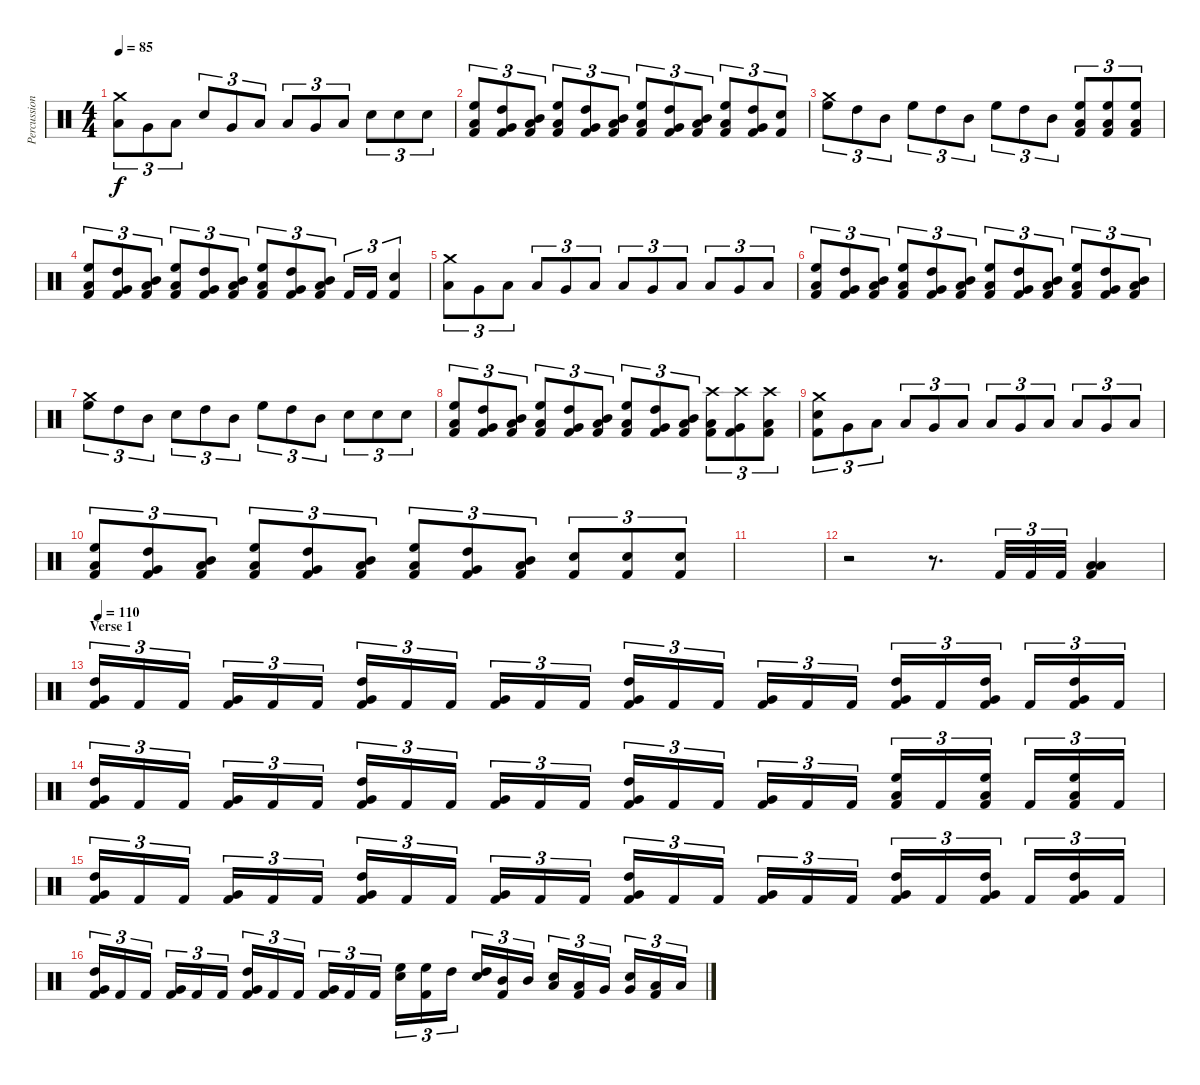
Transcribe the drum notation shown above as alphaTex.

\track ("Percussion" "Percussion") {instrument percussion}
\staff {score}
\articulation defaults
\ts (4 4)
\tempo 85
\clef neutral
\ks c
("Crash medium (hit)" "Low Tom (hit)").8{tu (3 2) dy f} "Very Low Tom (hit)".8{tu (3 2)} "Low Floor Tom (hit)".8{tu (3 2)} "Electric Snare (hit)".8{tu (3 2)} "Very Low Tom (hit)".8{tu (3 2)} "Low Floor Tom (hit)".8{tu (3 2)} "Low Tom (hit)".8{tu (3 2)} "Very Low Tom (hit)".8{tu (3 2)} "Low Floor Tom (hit)".8{tu (3 2)} "Electric Snare (hit)".8{tu (3 2)} "Electric Snare (hit)".8{tu (3 2)} "Electric Snare (hit)".8{tu (3 2)} |
("High Floor Tom (hit)" "Low Tom (hit)" "Kick (hit) 2").8{tu (3 2)} ("High Tom (hit)" "Very Low Tom (hit)" "Kick (hit) 2").8{tu (3 2)} ("Mid Tom (hit)" "Low Floor Tom (hit)" "Kick (hit) 2").8{tu (3 2)} ("High Floor Tom (hit)" "Low Tom (hit)" "Kick (hit) 2").8{tu (3 2)} ("High Tom (hit)" "Very Low Tom (hit)" "Kick (hit) 2").8{tu (3 2)} ("Mid Tom (hit)" "Low Floor Tom (hit)" "Kick (hit) 2").8{tu (3 2)} ("High Floor Tom (hit)" "Low Tom (hit)" "Kick (hit) 2").8{tu (3 2)} ("High Tom (hit)" "Very Low Tom (hit)" "Kick (hit) 2").8{tu (3 2)} ("Mid Tom (hit)" "Low Floor Tom (hit)" "Kick (hit) 2").8{tu (3 2)} ("High Floor Tom (hit)" "Low Tom (hit)" "Kick (hit) 2").8{tu (3 2)} ("High Tom (hit)" "Very Low Tom (hit)" "Kick (hit) 2").8{tu (3 2)} ("Electric Snare (hit)" "Kick (hit) 2").8{tu (3 2)} |
("Crash medium (hit)" "High Floor Tom (hit)").8{tu (3 2)} "High Tom (hit)".8{tu (3 2)} "Mid Tom (hit)".8{tu (3 2)} "High Floor Tom (hit)".8{tu (3 2)} "High Tom (hit)".8{tu (3 2)} "Mid Tom (hit)".8{tu (3 2)} "High Floor Tom (hit)".8{tu (3 2)} "High Tom (hit)".8{tu (3 2)} "Mid Tom (hit)".8{tu (3 2)} ("High Floor Tom (hit)" "Low Tom (hit)" "Kick (hit) 2").8{tu (3 2)} ("High Floor Tom (hit)" "Low Tom (hit)" "Kick (hit) 2").8{tu (3 2)} ("High Floor Tom (hit)" "Low Tom (hit)" "Kick (hit) 2").8{tu (3 2)} |
("High Floor Tom (hit)" "Low Tom (hit)" "Kick (hit) 2").8{tu (3 2)} ("High Tom (hit)" "Very Low Tom (hit)" "Kick (hit) 2").8{tu (3 2)} ("Mid Tom (hit)" "Low Floor Tom (hit)" "Kick (hit) 2").8{tu (3 2)} ("High Floor Tom (hit)" "Low Tom (hit)" "Kick (hit) 2").8{tu (3 2)} ("High Tom (hit)" "Very Low Tom (hit)" "Kick (hit) 2").8{tu (3 2)} ("Mid Tom (hit)" "Low Floor Tom (hit)" "Kick (hit) 2").8{tu (3 2)} ("High Floor Tom (hit)" "Low Tom (hit)" "Kick (hit) 2").8{tu (3 2)} ("High Tom (hit)" "Very Low Tom (hit)" "Kick (hit) 2").8{tu (3 2)} ("Mid Tom (hit)" "Low Floor Tom (hit)" "Kick (hit) 2").8{tu (3 2)} "Kick (hit) 2".16{tu (3 2)} "Kick (hit) 2".16{tu (3 2)} ("Electric Snare (hit)" "Kick (hit) 2").4{tu (3 2)} |
("Crash medium (hit)" "Low Tom (hit)").8{tu (3 2)} "Very Low Tom (hit)".8{tu (3 2)} "Low Floor Tom (hit)".8{tu (3 2)} "Low Tom (hit)".8{tu (3 2)} "Very Low Tom (hit)".8{tu (3 2)} "Low Floor Tom (hit)".8{tu (3 2)} "Low Tom (hit)".8{tu (3 2)} "Very Low Tom (hit)".8{tu (3 2)} "Low Floor Tom (hit)".8{tu (3 2)} "Low Tom (hit)".8{tu (3 2)} "Very Low Tom (hit)".8{tu (3 2)} "Low Floor Tom (hit)".8{tu (3 2)} |
("High Floor Tom (hit)" "Low Tom (hit)" "Kick (hit) 2").8{tu (3 2)} ("High Tom (hit)" "Very Low Tom (hit)" "Kick (hit) 2").8{tu (3 2)} ("Mid Tom (hit)" "Low Floor Tom (hit)" "Kick (hit) 2").8{tu (3 2)} ("High Floor Tom (hit)" "Low Tom (hit)" "Kick (hit) 2").8{tu (3 2)} ("High Tom (hit)" "Very Low Tom (hit)" "Kick (hit) 2").8{tu (3 2)} ("Mid Tom (hit)" "Low Floor Tom (hit)" "Kick (hit) 2").8{tu (3 2)} ("High Floor Tom (hit)" "Low Tom (hit)" "Kick (hit) 2").8{tu (3 2)} ("High Tom (hit)" "Very Low Tom (hit)" "Kick (hit) 2").8{tu (3 2)} ("Mid Tom (hit)" "Low Floor Tom (hit)" "Kick (hit) 2").8{tu (3 2)} ("High Floor Tom (hit)" "Low Tom (hit)" "Kick (hit) 2").8{tu (3 2)} ("High Tom (hit)" "Very Low Tom (hit)" "Kick (hit) 2").8{tu (3 2)} ("Mid Tom (hit)" "Low Floor Tom (hit)" "Kick (hit) 2").8{tu (3 2)} |
("Crash medium (hit)" "High Floor Tom (hit)").8{tu (3 2)} "High Tom (hit)".8{tu (3 2)} "Mid Tom (hit)".8{tu (3 2)} "Electric Snare (hit)".8{tu (3 2)} "High Tom (hit)".8{tu (3 2)} "Mid Tom (hit)".8{tu (3 2)} "High Floor Tom (hit)".8{tu (3 2)} "High Tom (hit)".8{tu (3 2)} "Mid Tom (hit)".8{tu (3 2)} "Electric Snare (hit)".8{tu (3 2)} "Electric Snare (hit)".8{tu (3 2)} "Electric Snare (hit)".8{tu (3 2)} |
("High Floor Tom (hit)" "Low Tom (hit)" "Kick (hit) 2").8{tu (3 2)} ("High Tom (hit)" "Very Low Tom (hit)" "Kick (hit) 2").8{tu (3 2)} ("Mid Tom (hit)" "Low Floor Tom (hit)" "Kick (hit) 2").8{tu (3 2)} ("High Floor Tom (hit)" "Low Tom (hit)" "Kick (hit) 2").8{tu (3 2)} ("High Tom (hit)" "Very Low Tom (hit)" "Kick (hit) 2").8{tu (3 2)} ("Mid Tom (hit)" "Low Floor Tom (hit)" "Kick (hit) 2").8{tu (3 2)} ("High Floor Tom (hit)" "Low Tom (hit)" "Kick (hit) 2").8{tu (3 2)} ("High Tom (hit)" "Very Low Tom (hit)" "Kick (hit) 2").8{tu (3 2)} ("Mid Tom (hit)" "Low Floor Tom (hit)" "Kick (hit) 2").8{tu (3 2)} ("Crash high (hit)" "Low Tom (hit)" "Kick (hit) 2").8{tu (3 2)} ("Crash high (hit)" "Very Low Tom (hit)" "Kick (hit) 2").8{tu (3 2)} ("Crash high (hit)" "Low Floor Tom (hit)" "Kick (hit) 2").8{tu (3 2)} |
("Crash medium (hit)" "Electric Snare (hit)" "Kick (hit) 2").8{tu (3 2)} "Very Low Tom (hit)".8{tu (3 2)} "Low Floor Tom (hit)".8{tu (3 2)} "Low Tom (hit)".8{tu (3 2)} "Very Low Tom (hit)".8{tu (3 2)} "Low Floor Tom (hit)".8{tu (3 2)} "Low Tom (hit)".8{tu (3 2)} "Very Low Tom (hit)".8{tu (3 2)} "Low Floor Tom (hit)".8{tu (3 2)} "Low Tom (hit)".8{tu (3 2)} "Very Low Tom (hit)".8{tu (3 2)} "Low Floor Tom (hit)".8{tu (3 2)} |
("High Floor Tom (hit)" "Low Tom (hit)" "Kick (hit) 2").8{tu (3 2)} ("High Tom (hit)" "Very Low Tom (hit)" "Kick (hit) 2").8{tu (3 2)} ("Mid Tom (hit)" "Low Floor Tom (hit)" "Kick (hit) 2").8{tu (3 2)} ("High Floor Tom (hit)" "Low Tom (hit)" "Kick (hit) 2").8{tu (3 2)} ("High Tom (hit)" "Very Low Tom (hit)" "Kick (hit) 2").8{tu (3 2)} ("Mid Tom (hit)" "Low Floor Tom (hit)" "Kick (hit) 2").8{tu (3 2)} ("High Floor Tom (hit)" "Low Tom (hit)" "Kick (hit) 2").8{tu (3 2)} ("High Tom (hit)" "Very Low Tom (hit)" "Kick (hit) 2").8{tu (3 2)} ("Mid Tom (hit)" "Low Floor Tom (hit)" "Kick (hit) 2").8{tu (3 2)} ("Electric Snare (hit)" "Kick (hit) 2").8{tu (3 2)} ("Electric Snare (hit)" "Kick (hit) 2").8{tu (3 2)} ("Electric Snare (hit)" "Kick (hit) 2").8{tu (3 2)} |
|
r.2 r.8{d} "Kick (hit) 2".32{tu (3 2)} "Kick (hit) 2".32{tu (3 2)} "Kick (hit) 2".32{tu (3 2)} ("Low Tom (hit)" "Low Floor Tom (hit)" "Kick (hit) 2").4 |
\section ("" "Verse 1")
\tempo 110
("High Tom (hit)" "Very Low Tom (hit)" "Kick (hit) 2").16{tu (3 2)} "Kick (hit) 2".16{tu (3 2)} "Kick (hit) 2".16{tu (3 2)} ("Very Low Tom (hit)" "Kick (hit) 2").16{tu (3 2)} "Kick (hit) 2".16{tu (3 2)} "Kick (hit) 2".16{tu (3 2)} ("High Tom (hit)" "Very Low Tom (hit)" "Kick (hit) 2").16{tu (3 2)} "Kick (hit) 2".16{tu (3 2)} "Kick (hit) 2".16{tu (3 2)} ("Very Low Tom (hit)" "Kick (hit) 2").16{tu (3 2)} "Kick (hit) 2".16{tu (3 2)} "Kick (hit) 2".16{tu (3 2)} ("High Tom (hit)" "Very Low Tom (hit)" "Kick (hit) 2").16{tu (3 2)} "Kick (hit) 2".16{tu (3 2)} "Kick (hit) 2".16{tu (3 2)} ("Very Low Tom (hit)" "Kick (hit) 2").16{tu (3 2)} "Kick (hit) 2".16{tu (3 2)} "Kick (hit) 2".16{tu (3 2)} ("High Tom (hit)" "Very Low Tom (hit)" "Kick (hit) 2").16{tu (3 2)} "Kick (hit) 2".16{tu (3 2)} ("High Tom (hit)" "Very Low Tom (hit)" "Kick (hit) 2").16{tu (3 2)} "Kick (hit) 2".16{tu (3 2)} ("High Tom (hit)" "Very Low Tom (hit)" "Kick (hit) 2").16{tu (3 2)} "Kick (hit) 2".16{tu (3 2)} |
("High Tom (hit)" "Very Low Tom (hit)" "Kick (hit) 2").16{tu (3 2)} "Kick (hit) 2".16{tu (3 2)} "Kick (hit) 2".16{tu (3 2)} ("Very Low Tom (hit)" "Kick (hit) 2").16{tu (3 2)} "Kick (hit) 2".16{tu (3 2)} "Kick (hit) 2".16{tu (3 2)} ("High Tom (hit)" "Very Low Tom (hit)" "Kick (hit) 2").16{tu (3 2)} "Kick (hit) 2".16{tu (3 2)} "Kick (hit) 2".16{tu (3 2)} ("Very Low Tom (hit)" "Kick (hit) 2").16{tu (3 2)} "Kick (hit) 2".16{tu (3 2)} "Kick (hit) 2".16{tu (3 2)} ("High Tom (hit)" "Very Low Tom (hit)" "Kick (hit) 2").16{tu (3 2)} "Kick (hit) 2".16{tu (3 2)} "Kick (hit) 2".16{tu (3 2)} ("Very Low Tom (hit)" "Kick (hit) 2").16{tu (3 2)} "Kick (hit) 2".16{tu (3 2)} "Kick (hit) 2".16{tu (3 2)} ("High Floor Tom (hit)" "Low Tom (hit)" "Kick (hit) 2").16{tu (3 2)} "Kick (hit) 2".16{tu (3 2)} ("High Floor Tom (hit)" "Low Tom (hit)" "Kick (hit) 2").16{tu (3 2)} "Kick (hit) 2".16{tu (3 2)} ("High Floor Tom (hit)" "Low Tom (hit)" "Kick (hit) 2").16{tu (3 2)} "Kick (hit) 2".16{tu (3 2)} |
("High Tom (hit)" "Very Low Tom (hit)" "Kick (hit) 2").16{tu (3 2)} "Kick (hit) 2".16{tu (3 2)} "Kick (hit) 2".16{tu (3 2)} ("Very Low Tom (hit)" "Kick (hit) 2").16{tu (3 2)} "Kick (hit) 2".16{tu (3 2)} "Kick (hit) 2".16{tu (3 2)} ("High Tom (hit)" "Very Low Tom (hit)" "Kick (hit) 2").16{tu (3 2)} "Kick (hit) 2".16{tu (3 2)} "Kick (hit) 2".16{tu (3 2)} ("Very Low Tom (hit)" "Kick (hit) 2").16{tu (3 2)} "Kick (hit) 2".16{tu (3 2)} "Kick (hit) 2".16{tu (3 2)} ("High Tom (hit)" "Very Low Tom (hit)" "Kick (hit) 2").16{tu (3 2)} "Kick (hit) 2".16{tu (3 2)} "Kick (hit) 2".16{tu (3 2)} ("Very Low Tom (hit)" "Kick (hit) 2").16{tu (3 2)} "Kick (hit) 2".16{tu (3 2)} "Kick (hit) 2".16{tu (3 2)} ("High Tom (hit)" "Very Low Tom (hit)" "Kick (hit) 2").16{tu (3 2)} "Kick (hit) 2".16{tu (3 2)} ("High Tom (hit)" "Very Low Tom (hit)" "Kick (hit) 2").16{tu (3 2)} "Kick (hit) 2".16{tu (3 2)} ("High Tom (hit)" "Very Low Tom (hit)" "Kick (hit) 2").16{tu (3 2)} "Kick (hit) 2".16{tu (3 2)} |
("High Tom (hit)" "Very Low Tom (hit)" "Kick (hit) 2").16{tu (3 2)} "Kick (hit) 2".16{tu (3 2)} "Kick (hit) 2".16{tu (3 2)} ("Very Low Tom (hit)" "Kick (hit) 2").16{tu (3 2)} "Kick (hit) 2".16{tu (3 2)} "Kick (hit) 2".16{tu (3 2)} ("High Tom (hit)" "Very Low Tom (hit)" "Kick (hit) 2").16{tu (3 2)} "Kick (hit) 2".16{tu (3 2)} "Kick (hit) 2".16{tu (3 2)} ("Very Low Tom (hit)" "Kick (hit) 2").16{tu (3 2)} "Kick (hit) 2".16{tu (3 2)} "Kick (hit) 2".16{tu (3 2)} ("Electric Snare (hit)" "High Floor Tom (hit)").16{tu (3 2)} ("High Floor Tom (hit)" "Kick (hit) 2").16{tu (3 2)} "High Tom (hit)".16{tu (3 2)} ("Electric Snare (hit)" "High Tom (hit)").16{tu (3 2)} ("Mid Tom (hit)" "Kick (hit) 2").16{tu (3 2)} "Mid Tom (hit)".16{tu (3 2)} ("Electric Snare (hit)" "Low Tom (hit)").16{tu (3 2)} ("Low Tom (hit)" "Kick (hit) 2").16{tu (3 2)} "Very Low Tom (hit)".16{tu (3 2)} ("Electric Snare (hit)" "Very Low Tom (hit)").16{tu (3 2)} ("Low Floor Tom (hit)" "Kick (hit) 2").16{tu (3 2)} "Low Floor Tom (hit)".16{tu (3 2)}
